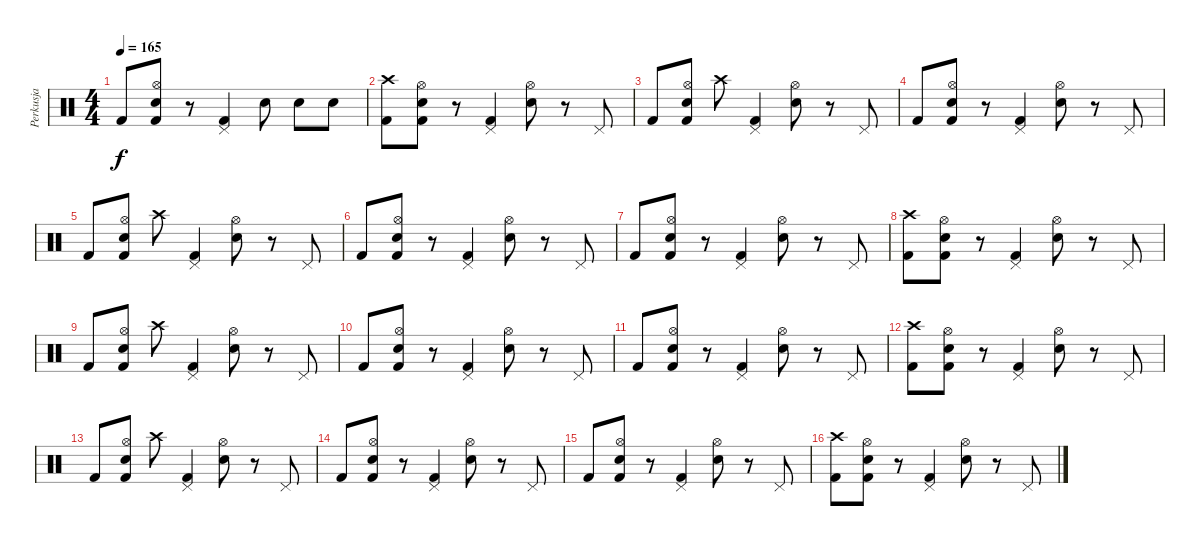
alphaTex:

\track ("Perkusja" "Perkusja") {instrument percussion}
\staff {score}
\articulation defaults
\ts (4 4)
\tempo 165
\clef neutral
\ks c "Kick (hit) 2".8{dy f}
("Hi-Hat (open)" "Electric Snare (hit)" "Kick (hit) 2").8 r.8 ("Pedal Hi-Hat (hit)" "Kick (hit) 2").4 "Electric Snare (hit)".8 "Electric Snare (hit)".8 "Electric Snare (hit)".8 |
("Crash high (hit)" "Kick (hit) 2").8 ("Hi-Hat (open)" "Electric Snare (hit)" "Kick (hit) 2").8 r.8 ("Pedal Hi-Hat (hit)" "Kick (hit) 2").4 ("Hi-Hat (open)" "Electric Snare (hit)").8 r.8 "Pedal Hi-Hat (hit)".8 |
"Kick (hit) 2".8 ("Hi-Hat (open)" "Electric Snare (hit)" "Kick (hit) 2").8 "Crash high (hit)".8 ("Pedal Hi-Hat (hit)" "Kick (hit) 2").4 ("Hi-Hat (open)" "Electric Snare (hit)").8 r.8 "Pedal Hi-Hat (hit)".8 |
"Kick (hit) 2".8 ("Hi-Hat (open)" "Electric Snare (hit)" "Kick (hit) 2").8 r.8 ("Pedal Hi-Hat (hit)" "Kick (hit) 2").4 ("Hi-Hat (open)" "Electric Snare (hit)").8 r.8 "Pedal Hi-Hat (hit)".8 |
"Kick (hit) 2".8 ("Hi-Hat (open)" "Electric Snare (hit)" "Kick (hit) 2").8 "Crash high (hit)".8 ("Pedal Hi-Hat (hit)" "Kick (hit) 2").4 ("Hi-Hat (open)" "Electric Snare (hit)").8 r.8 "Pedal Hi-Hat (hit)".8 |
"Kick (hit) 2".8 ("Hi-Hat (open)" "Electric Snare (hit)" "Kick (hit) 2").8 r.8 ("Pedal Hi-Hat (hit)" "Kick (hit) 2").4 ("Hi-Hat (open)" "Electric Snare (hit)").8 r.8 "Pedal Hi-Hat (hit)".8 |
"Kick (hit) 2".8 ("Hi-Hat (open)" "Electric Snare (hit)" "Kick (hit) 2").8 r.8 ("Pedal Hi-Hat (hit)" "Kick (hit) 2").4 ("Hi-Hat (open)" "Electric Snare (hit)").8 r.8 "Pedal Hi-Hat (hit)".8 |
("Crash high (hit)" "Kick (hit) 2").8 ("Hi-Hat (open)" "Electric Snare (hit)" "Kick (hit) 2").8 r.8 ("Pedal Hi-Hat (hit)" "Kick (hit) 2").4 ("Hi-Hat (open)" "Electric Snare (hit)").8 r.8 "Pedal Hi-Hat (hit)".8 |
"Kick (hit) 2".8 ("Hi-Hat (open)" "Electric Snare (hit)" "Kick (hit) 2").8 "Crash high (hit)".8 ("Pedal Hi-Hat (hit)" "Kick (hit) 2").4 ("Hi-Hat (open)" "Electric Snare (hit)").8 r.8 "Pedal Hi-Hat (hit)".8 |
"Kick (hit) 2".8 ("Hi-Hat (open)" "Electric Snare (hit)" "Kick (hit) 2").8 r.8 ("Pedal Hi-Hat (hit)" "Kick (hit) 2").4 ("Hi-Hat (open)" "Electric Snare (hit)").8 r.8 "Pedal Hi-Hat (hit)".8 |
"Kick (hit) 2".8 ("Hi-Hat (open)" "Electric Snare (hit)" "Kick (hit) 2").8 r.8 ("Pedal Hi-Hat (hit)" "Kick (hit) 2").4 ("Hi-Hat (open)" "Electric Snare (hit)").8 r.8 "Pedal Hi-Hat (hit)".8 |
("Crash high (hit)" "Kick (hit) 2").8 ("Hi-Hat (open)" "Electric Snare (hit)" "Kick (hit) 2").8 r.8 ("Pedal Hi-Hat (hit)" "Kick (hit) 2").4 ("Hi-Hat (open)" "Electric Snare (hit)").8 r.8 "Pedal Hi-Hat (hit)".8 |
"Kick (hit) 2".8 ("Hi-Hat (open)" "Electric Snare (hit)" "Kick (hit) 2").8 "Crash high (hit)".8 ("Pedal Hi-Hat (hit)" "Kick (hit) 2").4 ("Hi-Hat (open)" "Electric Snare (hit)").8 r.8 "Pedal Hi-Hat (hit)".8 |
"Kick (hit) 2".8 ("Hi-Hat (open)" "Electric Snare (hit)" "Kick (hit) 2").8 r.8 ("Pedal Hi-Hat (hit)" "Kick (hit) 2").4 ("Hi-Hat (open)" "Electric Snare (hit)").8 r.8 "Pedal Hi-Hat (hit)".8 |
"Kick (hit) 2".8 ("Hi-Hat (open)" "Electric Snare (hit)" "Kick (hit) 2").8 r.8 ("Pedal Hi-Hat (hit)" "Kick (hit) 2").4 ("Hi-Hat (open)" "Electric Snare (hit)").8 r.8 "Pedal Hi-Hat (hit)".8 |
("Crash high (hit)" "Kick (hit) 2").8 ("Hi-Hat (open)" "Electric Snare (hit)" "Kick (hit) 2").8 r.8 ("Pedal Hi-Hat (hit)" "Kick (hit) 2").4 ("Hi-Hat (open)" "Electric Snare (hit)").8 r.8 "Pedal Hi-Hat (hit)".8
